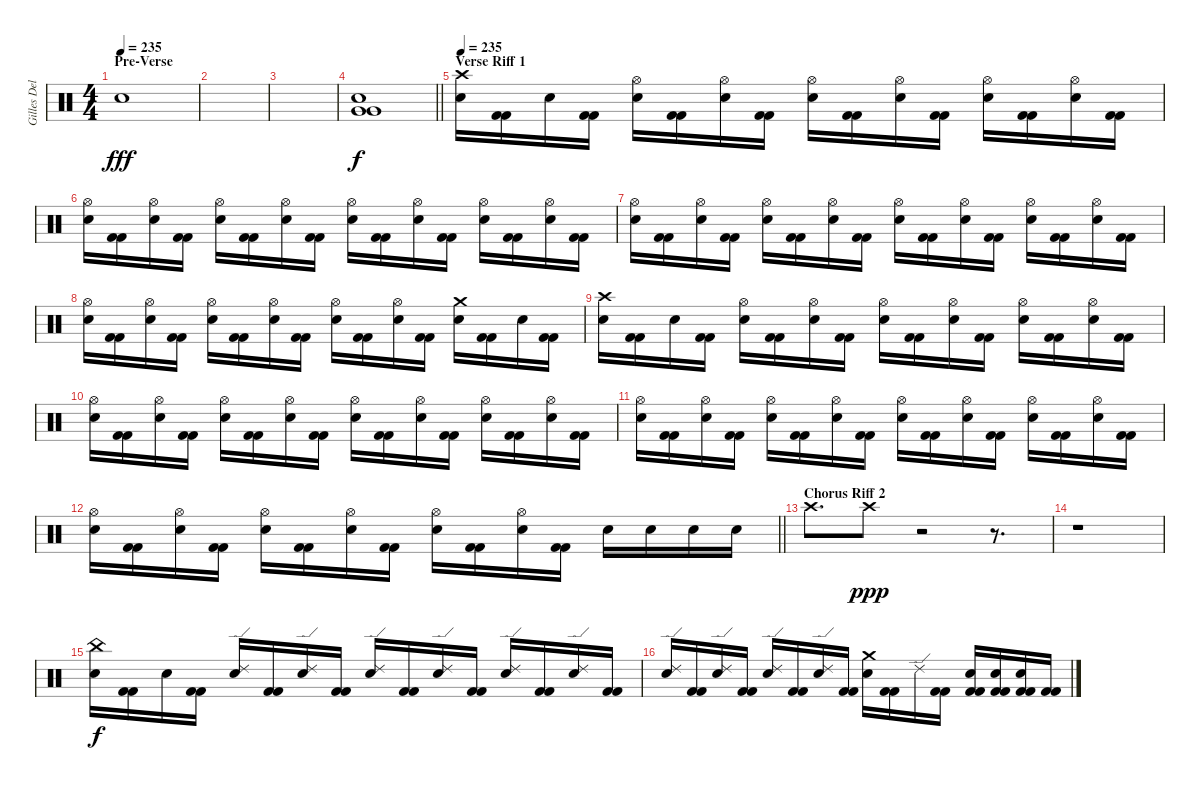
\track ("Gilles Delecroix" "Gilles Del") {instrument percussion}
\staff {score}
\articulation defaults
\ts (4 4)
\section ("" "Pre-Verse")
\tempo 235
\clef neutral
\ks c "Electric Snare (hit)".1{dy fff}
|
|
|
\barLineRight lightlight
("Very Low Tom (hit)" "Very Low Tom (hit)" "Electric Snare (hit)").1{dy f} |
\section ("" "Verse Riff 1")
\tempo 235
("Crash high (hit)" "Electric Snare (hit)").16 ("Kick (hit) 2" "Kick (hit) 2").16 "Electric Snare (hit)".16 ("Kick (hit) 2" "Kick (hit) 2").16 ("Hi-Hat (open)" "Electric Snare (hit)").16 ("Kick (hit) 2" "Kick (hit) 2").16 ("Hi-Hat (open)" "Electric Snare (hit)").16 ("Kick (hit) 2" "Kick (hit) 2").16 ("Hi-Hat (open)" "Electric Snare (hit)").16 ("Kick (hit) 2" "Kick (hit) 2").16 ("Hi-Hat (open)" "Electric Snare (hit)").16 ("Kick (hit) 2" "Kick (hit) 2").16 ("Hi-Hat (open)" "Electric Snare (hit)").16 ("Kick (hit) 2" "Kick (hit) 2").16 ("Hi-Hat (open)" "Electric Snare (hit)").16 ("Kick (hit) 2" "Kick (hit) 2").16 |
("Hi-Hat (open)" "Electric Snare (hit)").16 ("Kick (hit) 2" "Kick (hit) 2").16 ("Hi-Hat (open)" "Electric Snare (hit)").16 ("Kick (hit) 2" "Kick (hit) 2").16 ("Hi-Hat (open)" "Electric Snare (hit)").16 ("Kick (hit) 2" "Kick (hit) 2").16 ("Hi-Hat (open)" "Electric Snare (hit)").16 ("Kick (hit) 2" "Kick (hit) 2").16 ("Hi-Hat (open)" "Electric Snare (hit)").16 ("Kick (hit) 2" "Kick (hit) 2").16 ("Hi-Hat (open)" "Electric Snare (hit)").16 ("Kick (hit) 2" "Kick (hit) 2").16 ("Hi-Hat (open)" "Electric Snare (hit)").16 ("Kick (hit) 2" "Kick (hit) 2").16 ("Hi-Hat (open)" "Electric Snare (hit)").16 ("Kick (hit) 2" "Kick (hit) 2").16 |
("Hi-Hat (open)" "Electric Snare (hit)").16 ("Kick (hit) 2" "Kick (hit) 2").16 ("Hi-Hat (open)" "Electric Snare (hit)").16 ("Kick (hit) 2" "Kick (hit) 2").16 ("Hi-Hat (open)" "Electric Snare (hit)").16 ("Kick (hit) 2" "Kick (hit) 2").16 ("Hi-Hat (open)" "Electric Snare (hit)").16 ("Kick (hit) 2" "Kick (hit) 2").16 ("Hi-Hat (open)" "Electric Snare (hit)").16 ("Kick (hit) 2" "Kick (hit) 2").16 ("Hi-Hat (open)" "Electric Snare (hit)").16 ("Kick (hit) 2" "Kick (hit) 2").16 ("Hi-Hat (open)" "Electric Snare (hit)").16 ("Kick (hit) 2" "Kick (hit) 2").16 ("Hi-Hat (open)" "Electric Snare (hit)").16 ("Kick (hit) 2" "Kick (hit) 2").16 |
("Hi-Hat (open)" "Electric Snare (hit)").16 ("Kick (hit) 2" "Kick (hit) 2").16 ("Hi-Hat (open)" "Electric Snare (hit)").16 ("Kick (hit) 2" "Kick (hit) 2").16 ("Hi-Hat (open)" "Electric Snare (hit)").16 ("Kick (hit) 2" "Kick (hit) 2").16 ("Hi-Hat (open)" "Electric Snare (hit)").16 ("Kick (hit) 2" "Kick (hit) 2").16 ("Hi-Hat (open)" "Electric Snare (hit)").16 ("Kick (hit) 2" "Kick (hit) 2").16 ("Hi-Hat (open)" "Electric Snare (hit)").16 ("Kick (hit) 2" "Kick (hit) 2").16 ("Crash medium (hit)" "Electric Snare (hit)").16 ("Kick (hit) 2" "Kick (hit) 2").16 "Electric Snare (hit)".16 ("Kick (hit) 2" "Kick (hit) 2").16 |
("Crash high (hit)" "Electric Snare (hit)").16 ("Kick (hit) 2" "Kick (hit) 2").16 "Electric Snare (hit)".16 ("Kick (hit) 2" "Kick (hit) 2").16 ("Hi-Hat (open)" "Electric Snare (hit)").16 ("Kick (hit) 2" "Kick (hit) 2").16 ("Hi-Hat (open)" "Electric Snare (hit)").16 ("Kick (hit) 2" "Kick (hit) 2").16 ("Hi-Hat (open)" "Electric Snare (hit)").16 ("Kick (hit) 2" "Kick (hit) 2").16 ("Hi-Hat (open)" "Electric Snare (hit)").16 ("Kick (hit) 2" "Kick (hit) 2").16 ("Hi-Hat (open)" "Electric Snare (hit)").16 ("Kick (hit) 2" "Kick (hit) 2").16 ("Hi-Hat (open)" "Electric Snare (hit)").16 ("Kick (hit) 2" "Kick (hit) 2").16 |
("Hi-Hat (open)" "Electric Snare (hit)").16 ("Kick (hit) 2" "Kick (hit) 2").16 ("Hi-Hat (open)" "Electric Snare (hit)").16 ("Kick (hit) 2" "Kick (hit) 2").16 ("Hi-Hat (open)" "Electric Snare (hit)").16 ("Kick (hit) 2" "Kick (hit) 2").16 ("Hi-Hat (open)" "Electric Snare (hit)").16 ("Kick (hit) 2" "Kick (hit) 2").16 ("Hi-Hat (open)" "Electric Snare (hit)").16 ("Kick (hit) 2" "Kick (hit) 2").16 ("Hi-Hat (open)" "Electric Snare (hit)").16 ("Kick (hit) 2" "Kick (hit) 2").16 ("Hi-Hat (open)" "Electric Snare (hit)").16 ("Kick (hit) 2" "Kick (hit) 2").16 ("Hi-Hat (open)" "Electric Snare (hit)").16 ("Kick (hit) 2" "Kick (hit) 2").16 |
("Hi-Hat (open)" "Electric Snare (hit)").16 ("Kick (hit) 2" "Kick (hit) 2").16 ("Hi-Hat (open)" "Electric Snare (hit)").16 ("Kick (hit) 2" "Kick (hit) 2").16 ("Hi-Hat (open)" "Electric Snare (hit)").16 ("Kick (hit) 2" "Kick (hit) 2").16 ("Hi-Hat (open)" "Electric Snare (hit)").16 ("Kick (hit) 2" "Kick (hit) 2").16 ("Hi-Hat (open)" "Electric Snare (hit)").16 ("Kick (hit) 2" "Kick (hit) 2").16 ("Hi-Hat (open)" "Electric Snare (hit)").16 ("Kick (hit) 2" "Kick (hit) 2").16 ("Hi-Hat (open)" "Electric Snare (hit)").16 ("Kick (hit) 2" "Kick (hit) 2").16 ("Hi-Hat (open)" "Electric Snare (hit)").16 ("Kick (hit) 2" "Kick (hit) 2").16 |
\barLineRight lightlight
("Hi-Hat (open)" "Electric Snare (hit)").16 ("Kick (hit) 2" "Kick (hit) 2").16 ("Hi-Hat (open)" "Electric Snare (hit)").16 ("Kick (hit) 2" "Kick (hit) 2").16 ("Hi-Hat (open)" "Electric Snare (hit)").16 ("Kick (hit) 2" "Kick (hit) 2").16 ("Hi-Hat (open)" "Electric Snare (hit)").16 ("Kick (hit) 2" "Kick (hit) 2").16 ("Hi-Hat (open)" "Electric Snare (hit)").16 ("Kick (hit) 2" "Kick (hit) 2").16 ("Hi-Hat (open)" "Electric Snare (hit)").16 ("Kick (hit) 2" "Kick (hit) 2").16 "Electric Snare (hit)".16 "Electric Snare (hit)".16 "Electric Snare (hit)".16 "Electric Snare (hit)".16 |
\section ("" "Chorus Riff 2")
"Crash high (hit)".8{d} "Crash high (hit)".8{dy ppp} r.2 r.8{d} |
r.1 |
("China (hit)" "Electric Snare (hit)").16{dy f} ("Kick (hit) 2" "Kick (hit) 2").16 "Electric Snare (hit)".16 ("Kick (hit) 2" "Kick (hit) 2").16 ("Ride (edge) 2" "Electric Snare (hit)").16 ("Kick (hit) 2" "Kick (hit) 2").16 ("Ride (edge) 2" "Electric Snare (hit)").16 ("Kick (hit) 2" "Kick (hit) 2").16 ("Ride (edge) 2" "Electric Snare (hit)").16 ("Kick (hit) 2" "Kick (hit) 2").16 ("Ride (edge) 2" "Electric Snare (hit)").16 ("Kick (hit) 2" "Kick (hit) 2").16 ("Ride (edge) 2" "Electric Snare (hit)").16 ("Kick (hit) 2" "Kick (hit) 2").16 ("Ride (edge) 2" "Electric Snare (hit)").16 ("Kick (hit) 2" "Kick (hit) 2").16 |
("Ride (edge) 2" "Electric Snare (hit)").16 ("Kick (hit) 2" "Kick (hit) 2").16 ("Ride (edge) 2" "Electric Snare (hit)").16 ("Kick (hit) 2" "Kick (hit) 2").16 ("Ride (edge) 2" "Electric Snare (hit)").16 ("Kick (hit) 2" "Kick (hit) 2").16 ("Ride (edge) 2" "Electric Snare (hit)").16 ("Kick (hit) 2" "Kick (hit) 2").16 ("Crash medium (hit)" "Electric Snare (hit)").16 ("Kick (hit) 2" "Kick (hit) 2").16 "Ride (edge) 2".16 ("Kick (hit) 2" "Kick (hit) 2").16 ("Electric Snare (hit)" "Kick (hit) 2" "Kick (hit) 2").16 ("Electric Snare (hit)" "Kick (hit) 2" "Kick (hit) 2").16 ("Electric Snare (hit)" "Kick (hit) 2" "Kick (hit) 2").16 ("Kick (hit) 2" "Kick (hit) 2").16
